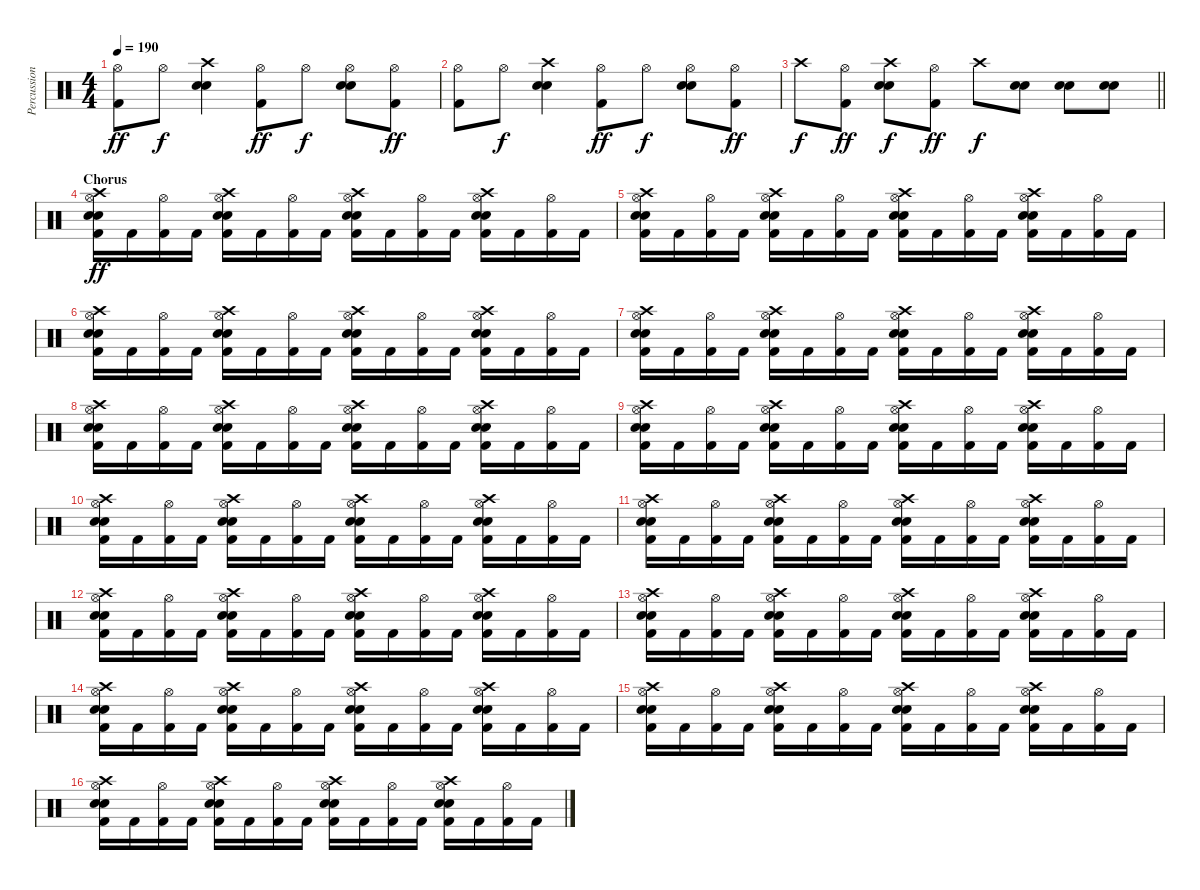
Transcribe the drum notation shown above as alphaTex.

\track ("Percussion" "Percussion") {instrument percussion}
\staff {score}
\articulation defaults
\ts (4 4)
\tempo 190
\clef neutral
\ks c
("Hi-Hat (open)" "Kick (hit) 2").8{dy ff} "Hi-Hat (open)".8{dy f} ("Crash high (hit)" "Electric Snare (hit)" "Snare (hit) 2").4 ("Hi-Hat (open)" "Kick (hit) 2").8{dy ff} "Hi-Hat (open)".8{dy f} ("Hi-Hat (open)" "Electric Snare (hit)" "Snare (hit) 2").8 ("Hi-Hat (open)" "Kick (hit) 2").8{dy ff} |
("Hi-Hat (open)" "Kick (hit) 2").8 "Hi-Hat (open)".8{dy f} ("Crash high (hit)" "Electric Snare (hit)" "Snare (hit) 2").4 ("Hi-Hat (open)" "Kick (hit) 2").8{dy ff} "Hi-Hat (open)".8{dy f} ("Hi-Hat (open)" "Electric Snare (hit)" "Snare (hit) 2").8 ("Hi-Hat (open)" "Kick (hit) 2").8{dy ff} |
\barLineRight lightlight "Crash high (hit)".8{dy f}
("Hi-Hat (open)" "Kick (hit) 2").8{dy ff} ("Crash high (hit)" "Electric Snare (hit)" "Snare (hit) 2").8{dy f} ("Hi-Hat (open)" "Kick (hit) 2").8{dy ff} "Crash high (hit)".8{dy f} ("Electric Snare (hit)" "Snare (hit) 2").8 ("Electric Snare (hit)" "Snare (hit) 2").8 ("Electric Snare (hit)" "Snare (hit) 2").8 |
\section ("" "Chorus")
("Crash high (hit)" "Hi-Hat (open)" "Electric Snare (hit)" "Snare (hit) 2" "Kick (hit) 2").16{dy ff} "Kick (hit) 2".16 ("Hi-Hat (open)" "Kick (hit) 2").16 "Kick (hit) 2".16 ("Crash high (hit)" "Hi-Hat (open)" "Electric Snare (hit)" "Snare (hit) 2" "Kick (hit) 2").16 "Kick (hit) 2".16 ("Hi-Hat (open)" "Kick (hit) 2").16 "Kick (hit) 2".16 ("Crash high (hit)" "Hi-Hat (open)" "Electric Snare (hit)" "Snare (hit) 2" "Kick (hit) 2").16 "Kick (hit) 2".16 ("Hi-Hat (open)" "Kick (hit) 2").16 "Kick (hit) 2".16 ("Crash high (hit)" "Hi-Hat (open)" "Electric Snare (hit)" "Snare (hit) 2" "Kick (hit) 2").16 "Kick (hit) 2".16 ("Hi-Hat (open)" "Kick (hit) 2").16 "Kick (hit) 2".16 |
("Crash high (hit)" "Hi-Hat (open)" "Electric Snare (hit)" "Snare (hit) 2" "Kick (hit) 2").16 "Kick (hit) 2".16 ("Hi-Hat (open)" "Kick (hit) 2").16 "Kick (hit) 2".16 ("Crash high (hit)" "Hi-Hat (open)" "Electric Snare (hit)" "Snare (hit) 2" "Kick (hit) 2").16 "Kick (hit) 2".16 ("Hi-Hat (open)" "Kick (hit) 2").16 "Kick (hit) 2".16 ("Crash high (hit)" "Hi-Hat (open)" "Electric Snare (hit)" "Snare (hit) 2" "Kick (hit) 2").16 "Kick (hit) 2".16 ("Hi-Hat (open)" "Kick (hit) 2").16 "Kick (hit) 2".16 ("Crash high (hit)" "Hi-Hat (open)" "Electric Snare (hit)" "Snare (hit) 2" "Kick (hit) 2").16 "Kick (hit) 2".16 ("Hi-Hat (open)" "Kick (hit) 2").16 "Kick (hit) 2".16 |
("Crash high (hit)" "Hi-Hat (open)" "Electric Snare (hit)" "Snare (hit) 2" "Kick (hit) 2").16 "Kick (hit) 2".16 ("Hi-Hat (open)" "Kick (hit) 2").16 "Kick (hit) 2".16 ("Crash high (hit)" "Hi-Hat (open)" "Electric Snare (hit)" "Snare (hit) 2" "Kick (hit) 2").16 "Kick (hit) 2".16 ("Hi-Hat (open)" "Kick (hit) 2").16 "Kick (hit) 2".16 ("Crash high (hit)" "Hi-Hat (open)" "Electric Snare (hit)" "Snare (hit) 2" "Kick (hit) 2").16 "Kick (hit) 2".16 ("Hi-Hat (open)" "Kick (hit) 2").16 "Kick (hit) 2".16 ("Crash high (hit)" "Hi-Hat (open)" "Electric Snare (hit)" "Snare (hit) 2" "Kick (hit) 2").16 "Kick (hit) 2".16 ("Hi-Hat (open)" "Kick (hit) 2").16 "Kick (hit) 2".16 |
("Crash high (hit)" "Hi-Hat (open)" "Electric Snare (hit)" "Snare (hit) 2" "Kick (hit) 2").16 "Kick (hit) 2".16 ("Hi-Hat (open)" "Kick (hit) 2").16 "Kick (hit) 2".16 ("Crash high (hit)" "Hi-Hat (open)" "Electric Snare (hit)" "Snare (hit) 2" "Kick (hit) 2").16 "Kick (hit) 2".16 ("Hi-Hat (open)" "Kick (hit) 2").16 "Kick (hit) 2".16 ("Crash high (hit)" "Hi-Hat (open)" "Electric Snare (hit)" "Snare (hit) 2" "Kick (hit) 2").16 "Kick (hit) 2".16 ("Hi-Hat (open)" "Kick (hit) 2").16 "Kick (hit) 2".16 ("Crash high (hit)" "Hi-Hat (open)" "Electric Snare (hit)" "Snare (hit) 2" "Kick (hit) 2").16 "Kick (hit) 2".16 ("Hi-Hat (open)" "Kick (hit) 2").16 "Kick (hit) 2".16 |
("Crash high (hit)" "Hi-Hat (open)" "Electric Snare (hit)" "Snare (hit) 2" "Kick (hit) 2").16 "Kick (hit) 2".16 ("Hi-Hat (open)" "Kick (hit) 2").16 "Kick (hit) 2".16 ("Crash high (hit)" "Hi-Hat (open)" "Electric Snare (hit)" "Snare (hit) 2" "Kick (hit) 2").16 "Kick (hit) 2".16 ("Hi-Hat (open)" "Kick (hit) 2").16 "Kick (hit) 2".16 ("Crash high (hit)" "Hi-Hat (open)" "Electric Snare (hit)" "Snare (hit) 2" "Kick (hit) 2").16 "Kick (hit) 2".16 ("Hi-Hat (open)" "Kick (hit) 2").16 "Kick (hit) 2".16 ("Crash high (hit)" "Hi-Hat (open)" "Electric Snare (hit)" "Snare (hit) 2" "Kick (hit) 2").16 "Kick (hit) 2".16 ("Hi-Hat (open)" "Kick (hit) 2").16 "Kick (hit) 2".16 |
("Crash high (hit)" "Hi-Hat (open)" "Electric Snare (hit)" "Snare (hit) 2" "Kick (hit) 2").16 "Kick (hit) 2".16 ("Hi-Hat (open)" "Kick (hit) 2").16 "Kick (hit) 2".16 ("Crash high (hit)" "Hi-Hat (open)" "Electric Snare (hit)" "Snare (hit) 2" "Kick (hit) 2").16 "Kick (hit) 2".16 ("Hi-Hat (open)" "Kick (hit) 2").16 "Kick (hit) 2".16 ("Crash high (hit)" "Hi-Hat (open)" "Electric Snare (hit)" "Snare (hit) 2" "Kick (hit) 2").16 "Kick (hit) 2".16 ("Hi-Hat (open)" "Kick (hit) 2").16 "Kick (hit) 2".16 ("Crash high (hit)" "Hi-Hat (open)" "Electric Snare (hit)" "Snare (hit) 2" "Kick (hit) 2").16 "Kick (hit) 2".16 ("Hi-Hat (open)" "Kick (hit) 2").16 "Kick (hit) 2".16 |
("Crash high (hit)" "Hi-Hat (open)" "Electric Snare (hit)" "Snare (hit) 2" "Kick (hit) 2").16 "Kick (hit) 2".16 ("Hi-Hat (open)" "Kick (hit) 2").16 "Kick (hit) 2".16 ("Crash high (hit)" "Hi-Hat (open)" "Electric Snare (hit)" "Snare (hit) 2" "Kick (hit) 2").16 "Kick (hit) 2".16 ("Hi-Hat (open)" "Kick (hit) 2").16 "Kick (hit) 2".16 ("Crash high (hit)" "Hi-Hat (open)" "Electric Snare (hit)" "Snare (hit) 2" "Kick (hit) 2").16 "Kick (hit) 2".16 ("Hi-Hat (open)" "Kick (hit) 2").16 "Kick (hit) 2".16 ("Crash high (hit)" "Hi-Hat (open)" "Electric Snare (hit)" "Snare (hit) 2" "Kick (hit) 2").16 "Kick (hit) 2".16 ("Hi-Hat (open)" "Kick (hit) 2").16 "Kick (hit) 2".16 |
("Crash high (hit)" "Hi-Hat (open)" "Electric Snare (hit)" "Snare (hit) 2" "Kick (hit) 2").16 "Kick (hit) 2".16 ("Hi-Hat (open)" "Kick (hit) 2").16 "Kick (hit) 2".16 ("Crash high (hit)" "Hi-Hat (open)" "Electric Snare (hit)" "Snare (hit) 2" "Kick (hit) 2").16 "Kick (hit) 2".16 ("Hi-Hat (open)" "Kick (hit) 2").16 "Kick (hit) 2".16 ("Crash high (hit)" "Hi-Hat (open)" "Electric Snare (hit)" "Snare (hit) 2" "Kick (hit) 2").16 "Kick (hit) 2".16 ("Hi-Hat (open)" "Kick (hit) 2").16 "Kick (hit) 2".16 ("Crash high (hit)" "Hi-Hat (open)" "Electric Snare (hit)" "Snare (hit) 2" "Kick (hit) 2").16 "Kick (hit) 2".16 ("Hi-Hat (open)" "Kick (hit) 2").16 "Kick (hit) 2".16 |
("Crash high (hit)" "Hi-Hat (open)" "Electric Snare (hit)" "Snare (hit) 2" "Kick (hit) 2").16 "Kick (hit) 2".16 ("Hi-Hat (open)" "Kick (hit) 2").16 "Kick (hit) 2".16 ("Crash high (hit)" "Hi-Hat (open)" "Electric Snare (hit)" "Snare (hit) 2" "Kick (hit) 2").16 "Kick (hit) 2".16 ("Hi-Hat (open)" "Kick (hit) 2").16 "Kick (hit) 2".16 ("Crash high (hit)" "Hi-Hat (open)" "Electric Snare (hit)" "Snare (hit) 2" "Kick (hit) 2").16 "Kick (hit) 2".16 ("Hi-Hat (open)" "Kick (hit) 2").16 "Kick (hit) 2".16 ("Crash high (hit)" "Hi-Hat (open)" "Electric Snare (hit)" "Snare (hit) 2" "Kick (hit) 2").16 "Kick (hit) 2".16 ("Hi-Hat (open)" "Kick (hit) 2").16 "Kick (hit) 2".16 |
("Crash high (hit)" "Hi-Hat (open)" "Electric Snare (hit)" "Snare (hit) 2" "Kick (hit) 2").16 "Kick (hit) 2".16 ("Hi-Hat (open)" "Kick (hit) 2").16 "Kick (hit) 2".16 ("Crash high (hit)" "Hi-Hat (open)" "Electric Snare (hit)" "Snare (hit) 2" "Kick (hit) 2").16 "Kick (hit) 2".16 ("Hi-Hat (open)" "Kick (hit) 2").16 "Kick (hit) 2".16 ("Crash high (hit)" "Hi-Hat (open)" "Electric Snare (hit)" "Snare (hit) 2" "Kick (hit) 2").16 "Kick (hit) 2".16 ("Hi-Hat (open)" "Kick (hit) 2").16 "Kick (hit) 2".16 ("Crash high (hit)" "Hi-Hat (open)" "Electric Snare (hit)" "Snare (hit) 2" "Kick (hit) 2").16 "Kick (hit) 2".16 ("Hi-Hat (open)" "Kick (hit) 2").16 "Kick (hit) 2".16 |
("Crash high (hit)" "Hi-Hat (open)" "Electric Snare (hit)" "Snare (hit) 2" "Kick (hit) 2").16 "Kick (hit) 2".16 ("Hi-Hat (open)" "Kick (hit) 2").16 "Kick (hit) 2".16 ("Crash high (hit)" "Hi-Hat (open)" "Electric Snare (hit)" "Snare (hit) 2" "Kick (hit) 2").16 "Kick (hit) 2".16 ("Hi-Hat (open)" "Kick (hit) 2").16 "Kick (hit) 2".16 ("Crash high (hit)" "Hi-Hat (open)" "Electric Snare (hit)" "Snare (hit) 2" "Kick (hit) 2").16 "Kick (hit) 2".16 ("Hi-Hat (open)" "Kick (hit) 2").16 "Kick (hit) 2".16 ("Crash high (hit)" "Hi-Hat (open)" "Electric Snare (hit)" "Snare (hit) 2" "Kick (hit) 2").16 "Kick (hit) 2".16 ("Hi-Hat (open)" "Kick (hit) 2").16 "Kick (hit) 2".16 |
("Crash high (hit)" "Hi-Hat (open)" "Electric Snare (hit)" "Snare (hit) 2" "Kick (hit) 2").16 "Kick (hit) 2".16 ("Hi-Hat (open)" "Kick (hit) 2").16 "Kick (hit) 2".16 ("Crash high (hit)" "Hi-Hat (open)" "Electric Snare (hit)" "Snare (hit) 2" "Kick (hit) 2").16 "Kick (hit) 2".16 ("Hi-Hat (open)" "Kick (hit) 2").16 "Kick (hit) 2".16 ("Crash high (hit)" "Hi-Hat (open)" "Electric Snare (hit)" "Snare (hit) 2" "Kick (hit) 2").16 "Kick (hit) 2".16 ("Hi-Hat (open)" "Kick (hit) 2").16 "Kick (hit) 2".16 ("Crash high (hit)" "Hi-Hat (open)" "Electric Snare (hit)" "Snare (hit) 2" "Kick (hit) 2").16 "Kick (hit) 2".16 ("Hi-Hat (open)" "Kick (hit) 2").16 "Kick (hit) 2".16 |
("Crash high (hit)" "Hi-Hat (open)" "Electric Snare (hit)" "Snare (hit) 2" "Kick (hit) 2").16 "Kick (hit) 2".16 ("Hi-Hat (open)" "Kick (hit) 2").16 "Kick (hit) 2".16 ("Crash high (hit)" "Hi-Hat (open)" "Electric Snare (hit)" "Snare (hit) 2" "Kick (hit) 2").16 "Kick (hit) 2".16 ("Hi-Hat (open)" "Kick (hit) 2").16 "Kick (hit) 2".16 ("Crash high (hit)" "Hi-Hat (open)" "Electric Snare (hit)" "Snare (hit) 2" "Kick (hit) 2").16 "Kick (hit) 2".16 ("Hi-Hat (open)" "Kick (hit) 2").16 "Kick (hit) 2".16 ("Crash high (hit)" "Hi-Hat (open)" "Electric Snare (hit)" "Snare (hit) 2" "Kick (hit) 2").16 "Kick (hit) 2".16 ("Hi-Hat (open)" "Kick (hit) 2").16 "Kick (hit) 2".16
